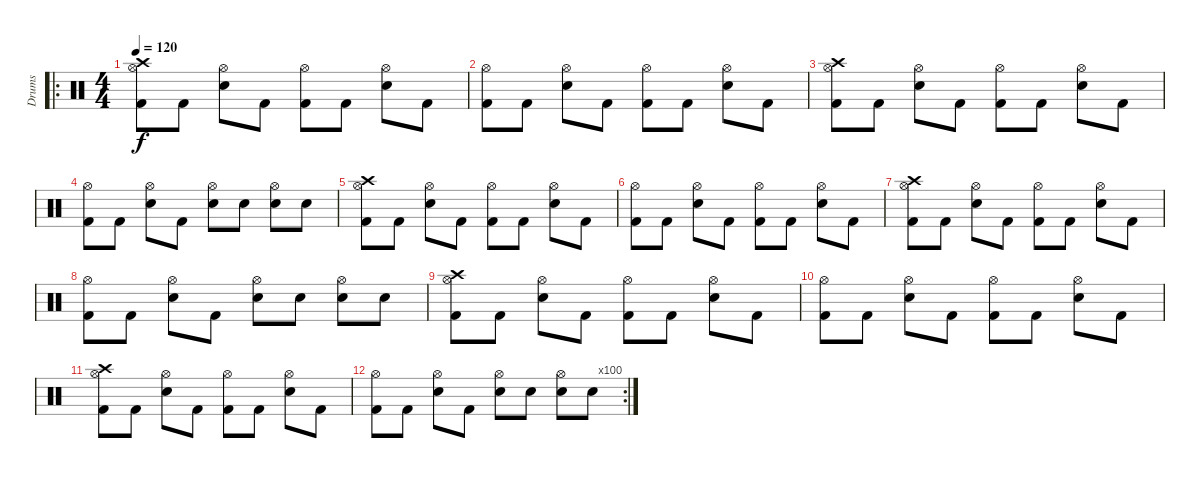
\track ("Drums" "Drums") {instrument percussion}
\staff {score}
\articulation defaults
\ro
\ts (4 4)
\tempo 120
\clef neutral
\ks c
("Crash high (hit)" "Hi-Hat (open)" "Kick (hit) 2").8{dy f} "Kick (hit) 2".8 ("Hi-Hat (open)" "Electric Snare (hit)").8 "Kick (hit) 2".8 ("Hi-Hat (open)" "Kick (hit) 2").8 "Kick (hit) 2".8 ("Hi-Hat (open)" "Electric Snare (hit)").8 "Kick (hit) 2".8 |
("Hi-Hat (open)" "Kick (hit) 2").8 "Kick (hit) 2".8 ("Hi-Hat (open)" "Electric Snare (hit)").8 "Kick (hit) 2".8 ("Hi-Hat (open)" "Kick (hit) 2").8 "Kick (hit) 2".8 ("Hi-Hat (open)" "Electric Snare (hit)").8 "Kick (hit) 2".8 |
("Crash high (hit)" "Hi-Hat (open)" "Kick (hit) 2").8 "Kick (hit) 2".8 ("Hi-Hat (open)" "Electric Snare (hit)").8 "Kick (hit) 2".8 ("Hi-Hat (open)" "Kick (hit) 2").8 "Kick (hit) 2".8 ("Hi-Hat (open)" "Electric Snare (hit)").8 "Kick (hit) 2".8 |
("Hi-Hat (open)" "Kick (hit) 2").8 "Kick (hit) 2".8 ("Hi-Hat (open)" "Electric Snare (hit)").8 "Kick (hit) 2".8 ("Hi-Hat (open)" "Electric Snare (hit)").8 "Electric Snare (hit)".8 ("Hi-Hat (open)" "Electric Snare (hit)").8 "Electric Snare (hit)".8 |
("Crash high (hit)" "Hi-Hat (open)" "Kick (hit) 2").8 "Kick (hit) 2".8 ("Hi-Hat (open)" "Electric Snare (hit)").8 "Kick (hit) 2".8 ("Hi-Hat (open)" "Kick (hit) 2").8 "Kick (hit) 2".8 ("Hi-Hat (open)" "Electric Snare (hit)").8 "Kick (hit) 2".8 |
("Hi-Hat (open)" "Kick (hit) 2").8 "Kick (hit) 2".8 ("Hi-Hat (open)" "Electric Snare (hit)").8 "Kick (hit) 2".8 ("Hi-Hat (open)" "Kick (hit) 2").8 "Kick (hit) 2".8 ("Hi-Hat (open)" "Electric Snare (hit)").8 "Kick (hit) 2".8 |
("Crash high (hit)" "Hi-Hat (open)" "Kick (hit) 2").8 "Kick (hit) 2".8 ("Hi-Hat (open)" "Electric Snare (hit)").8 "Kick (hit) 2".8 ("Hi-Hat (open)" "Kick (hit) 2").8 "Kick (hit) 2".8 ("Hi-Hat (open)" "Electric Snare (hit)").8 "Kick (hit) 2".8 |
("Hi-Hat (open)" "Kick (hit) 2").8 "Kick (hit) 2".8 ("Hi-Hat (open)" "Electric Snare (hit)").8 "Kick (hit) 2".8 ("Hi-Hat (open)" "Electric Snare (hit)").8 "Electric Snare (hit)".8 ("Hi-Hat (open)" "Electric Snare (hit)").8 "Electric Snare (hit)".8 |
("Crash high (hit)" "Hi-Hat (open)" "Kick (hit) 2").8 "Kick (hit) 2".8 ("Hi-Hat (open)" "Electric Snare (hit)").8 "Kick (hit) 2".8 ("Hi-Hat (open)" "Kick (hit) 2").8 "Kick (hit) 2".8 ("Hi-Hat (open)" "Electric Snare (hit)").8 "Kick (hit) 2".8 |
("Hi-Hat (open)" "Kick (hit) 2").8 "Kick (hit) 2".8 ("Hi-Hat (open)" "Electric Snare (hit)").8 "Kick (hit) 2".8 ("Hi-Hat (open)" "Kick (hit) 2").8 "Kick (hit) 2".8 ("Hi-Hat (open)" "Electric Snare (hit)").8 "Kick (hit) 2".8 |
("Crash high (hit)" "Hi-Hat (open)" "Kick (hit) 2").8 "Kick (hit) 2".8 ("Hi-Hat (open)" "Electric Snare (hit)").8 "Kick (hit) 2".8 ("Hi-Hat (open)" "Kick (hit) 2").8 "Kick (hit) 2".8 ("Hi-Hat (open)" "Electric Snare (hit)").8 "Kick (hit) 2".8 |
\rc 100
("Hi-Hat (open)" "Kick (hit) 2").8 "Kick (hit) 2".8 ("Hi-Hat (open)" "Electric Snare (hit)").8 "Kick (hit) 2".8 ("Hi-Hat (open)" "Electric Snare (hit)").8 "Electric Snare (hit)".8 ("Hi-Hat (open)" "Electric Snare (hit)").8 "Electric Snare (hit)".8
